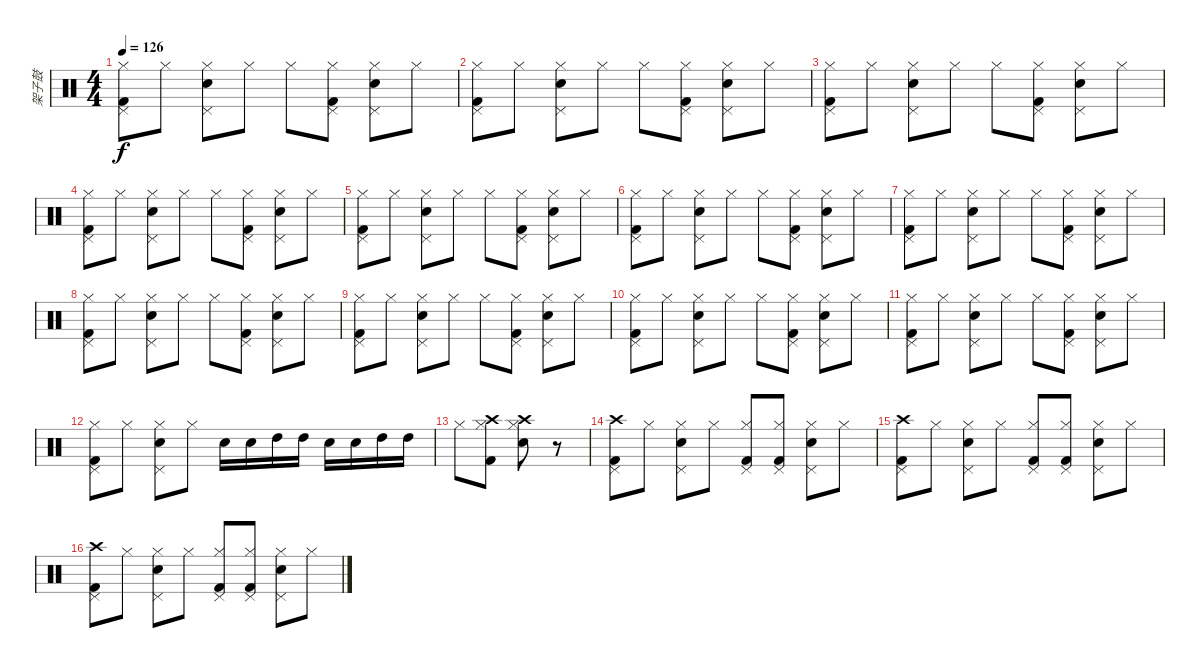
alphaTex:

\track ("架子鼓" "架子鼓") {instrument percussion}
\staff {score}
\articulation defaults
\ts (4 4)
\tempo 126
\clef neutral
\ks c
("Pedal Hi-Hat (hit)" "Hi-Hat (closed)" "Kick (hit) 2").8{dy f} "Hi-Hat (closed)".8 ("Pedal Hi-Hat (hit)" "Hi-Hat (closed)" "Snare (hit) 2").8 "Hi-Hat (closed)".8 "Hi-Hat (closed)".8 ("Pedal Hi-Hat (hit)" "Hi-Hat (closed)" "Kick (hit) 2").8 ("Pedal Hi-Hat (hit)" "Hi-Hat (closed)" "Snare (hit) 2").8 "Hi-Hat (closed)".8 |
("Pedal Hi-Hat (hit)" "Hi-Hat (closed)" "Kick (hit) 2").8 "Hi-Hat (closed)".8 ("Pedal Hi-Hat (hit)" "Hi-Hat (closed)" "Snare (hit) 2").8 "Hi-Hat (closed)".8 "Hi-Hat (closed)".8 ("Pedal Hi-Hat (hit)" "Hi-Hat (closed)" "Kick (hit) 2").8 ("Pedal Hi-Hat (hit)" "Hi-Hat (closed)" "Snare (hit) 2").8 "Hi-Hat (closed)".8 |
("Pedal Hi-Hat (hit)" "Hi-Hat (closed)" "Kick (hit) 2").8 "Hi-Hat (closed)".8 ("Pedal Hi-Hat (hit)" "Hi-Hat (closed)" "Snare (hit) 2").8 "Hi-Hat (closed)".8 "Hi-Hat (closed)".8 ("Pedal Hi-Hat (hit)" "Hi-Hat (closed)" "Kick (hit) 2").8 ("Pedal Hi-Hat (hit)" "Hi-Hat (closed)" "Snare (hit) 2").8 "Hi-Hat (closed)".8 |
("Pedal Hi-Hat (hit)" "Hi-Hat (closed)" "Kick (hit) 2").8 "Hi-Hat (closed)".8 ("Pedal Hi-Hat (hit)" "Hi-Hat (closed)" "Snare (hit) 2").8 "Hi-Hat (closed)".8 "Hi-Hat (closed)".8 ("Pedal Hi-Hat (hit)" "Hi-Hat (closed)" "Kick (hit) 2").8 ("Pedal Hi-Hat (hit)" "Hi-Hat (closed)" "Snare (hit) 2").8 "Hi-Hat (closed)".8 |
("Pedal Hi-Hat (hit)" "Hi-Hat (closed)" "Kick (hit) 2").8 "Hi-Hat (closed)".8 ("Pedal Hi-Hat (hit)" "Hi-Hat (closed)" "Snare (hit) 2").8 "Hi-Hat (closed)".8 "Hi-Hat (closed)".8 ("Pedal Hi-Hat (hit)" "Hi-Hat (closed)" "Kick (hit) 2").8 ("Pedal Hi-Hat (hit)" "Hi-Hat (closed)" "Snare (hit) 2").8 "Hi-Hat (closed)".8 |
("Pedal Hi-Hat (hit)" "Hi-Hat (closed)" "Kick (hit) 2").8 "Hi-Hat (closed)".8 ("Pedal Hi-Hat (hit)" "Hi-Hat (closed)" "Snare (hit) 2").8 "Hi-Hat (closed)".8 "Hi-Hat (closed)".8 ("Pedal Hi-Hat (hit)" "Hi-Hat (closed)" "Kick (hit) 2").8 ("Pedal Hi-Hat (hit)" "Hi-Hat (closed)" "Snare (hit) 2").8 "Hi-Hat (closed)".8 |
("Pedal Hi-Hat (hit)" "Hi-Hat (closed)" "Kick (hit) 2").8 "Hi-Hat (closed)".8 ("Pedal Hi-Hat (hit)" "Hi-Hat (closed)" "Snare (hit) 2").8 "Hi-Hat (closed)".8 "Hi-Hat (closed)".8 ("Pedal Hi-Hat (hit)" "Hi-Hat (closed)" "Kick (hit) 2").8 ("Pedal Hi-Hat (hit)" "Hi-Hat (closed)" "Snare (hit) 2").8 "Hi-Hat (closed)".8 |
("Pedal Hi-Hat (hit)" "Hi-Hat (closed)" "Kick (hit) 2").8 "Hi-Hat (closed)".8 ("Pedal Hi-Hat (hit)" "Hi-Hat (closed)" "Snare (hit) 2").8 "Hi-Hat (closed)".8 "Hi-Hat (closed)".8 ("Pedal Hi-Hat (hit)" "Hi-Hat (closed)" "Kick (hit) 2").8 ("Pedal Hi-Hat (hit)" "Hi-Hat (closed)" "Snare (hit) 2").8 "Hi-Hat (closed)".8 |
("Pedal Hi-Hat (hit)" "Hi-Hat (closed)" "Kick (hit) 2").8 "Hi-Hat (closed)".8 ("Pedal Hi-Hat (hit)" "Hi-Hat (closed)" "Snare (hit) 2").8 "Hi-Hat (closed)".8 "Hi-Hat (closed)".8 ("Pedal Hi-Hat (hit)" "Hi-Hat (closed)" "Kick (hit) 2").8 ("Pedal Hi-Hat (hit)" "Hi-Hat (closed)" "Snare (hit) 2").8 "Hi-Hat (closed)".8 |
("Pedal Hi-Hat (hit)" "Hi-Hat (closed)" "Kick (hit) 2").8 "Hi-Hat (closed)".8 ("Pedal Hi-Hat (hit)" "Hi-Hat (closed)" "Snare (hit) 2").8 "Hi-Hat (closed)".8 "Hi-Hat (closed)".8 ("Pedal Hi-Hat (hit)" "Hi-Hat (closed)" "Kick (hit) 2").8 ("Pedal Hi-Hat (hit)" "Hi-Hat (closed)" "Snare (hit) 2").8 "Hi-Hat (closed)".8 |
("Pedal Hi-Hat (hit)" "Hi-Hat (closed)" "Kick (hit) 2").8 "Hi-Hat (closed)".8 ("Pedal Hi-Hat (hit)" "Hi-Hat (closed)" "Snare (hit) 2").8 "Hi-Hat (closed)".8 "Hi-Hat (closed)".8 ("Pedal Hi-Hat (hit)" "Hi-Hat (closed)" "Kick (hit) 2").8 ("Pedal Hi-Hat (hit)" "Hi-Hat (closed)" "Snare (hit) 2").8 "Hi-Hat (closed)".8 |
("Pedal Hi-Hat (hit)" "Hi-Hat (closed)" "Kick (hit) 2").8 "Hi-Hat (closed)".8 ("Pedal Hi-Hat (hit)" "Hi-Hat (closed)" "Snare (hit) 2").8 "Hi-Hat (closed)".8 "Snare (hit) 2".16 "Snare (hit) 2".16 "High Tom (hit)".16 "High Tom (hit)".16 "Snare (hit) 2".16 "Snare (hit) 2".16 "High Tom (hit)".16 "High Tom (hit)".16 |
"Hi-Hat (closed)".8 ("Crash high (hit)" "Hi-Hat (closed)" "Kick (hit) 2").8 ("Crash high (hit)" "Hi-Hat (closed)" "Snare (hit) 2").8 r.8 |
("Crash high (hit)" "Pedal Hi-Hat (hit)" "Kick (hit) 2").8 "Hi-Hat (closed)".8 ("Pedal Hi-Hat (hit)" "Hi-Hat (closed)" "Snare (hit) 2").8 "Hi-Hat (closed)".8 ("Pedal Hi-Hat (hit)" "Hi-Hat (closed)" "Kick (hit) 2").8 ("Pedal Hi-Hat (hit)" "Hi-Hat (closed)" "Kick (hit) 2").8 ("Pedal Hi-Hat (hit)" "Hi-Hat (closed)" "Snare (hit) 2").8 "Hi-Hat (closed)".8 |
("Crash high (hit)" "Pedal Hi-Hat (hit)" "Kick (hit) 2").8 "Hi-Hat (closed)".8 ("Pedal Hi-Hat (hit)" "Hi-Hat (closed)" "Snare (hit) 2").8 "Hi-Hat (closed)".8 ("Pedal Hi-Hat (hit)" "Hi-Hat (closed)" "Kick (hit) 2").8 ("Pedal Hi-Hat (hit)" "Hi-Hat (closed)" "Kick (hit) 2").8 ("Pedal Hi-Hat (hit)" "Hi-Hat (closed)" "Snare (hit) 2").8 "Hi-Hat (closed)".8 |
("Crash high (hit)" "Pedal Hi-Hat (hit)" "Kick (hit) 2").8 "Hi-Hat (closed)".8 ("Pedal Hi-Hat (hit)" "Hi-Hat (closed)" "Snare (hit) 2").8 "Hi-Hat (closed)".8 ("Pedal Hi-Hat (hit)" "Hi-Hat (closed)" "Kick (hit) 2").8 ("Pedal Hi-Hat (hit)" "Hi-Hat (closed)" "Kick (hit) 2").8 ("Pedal Hi-Hat (hit)" "Hi-Hat (closed)" "Snare (hit) 2").8 "Hi-Hat (closed)".8
